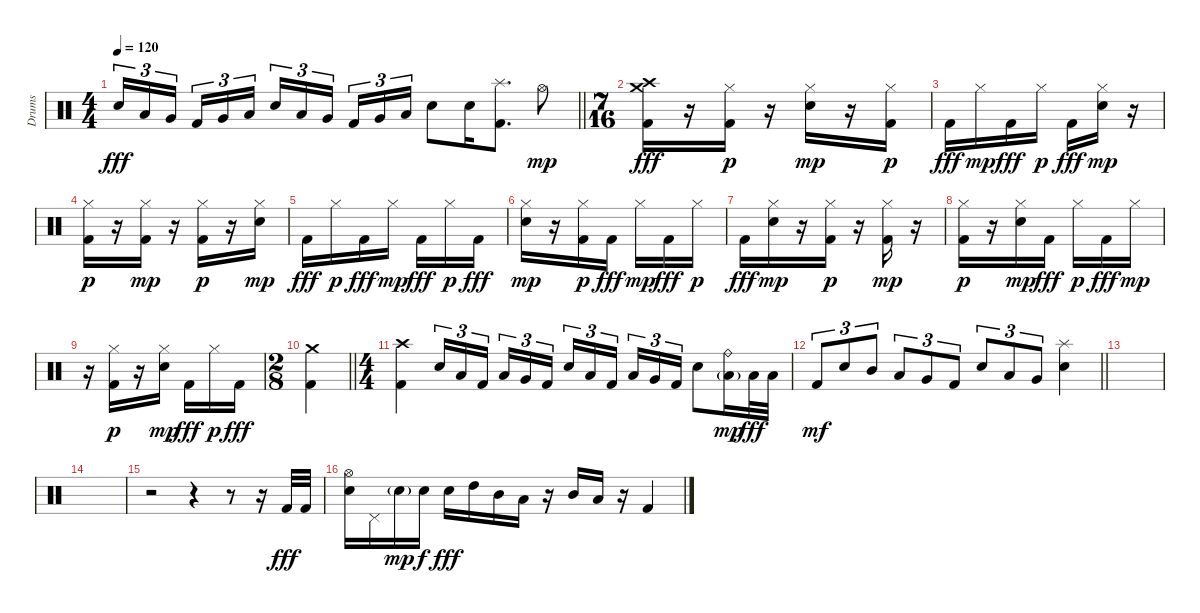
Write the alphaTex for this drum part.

\track ("Drums" "Drums") {instrument percussion}
\staff {score}
\articulation defaults
\ts (4 4)
\tempo 120
\clef neutral
\barLineRight lightlight
\ks c "Electric Snare (hit)".16{tu (3 2) dy fff} "Low Tom (hit)".16{tu (3 2)} "Very Low Tom (hit)".16{tu (3 2) beam splitsecondary} "Kick (hit) 2".16{tu (3 2)} "Very Low Tom (hit)".16{tu (3 2)} "Low Tom (hit)".16{tu (3 2)} "Electric Snare (hit)".16{tu (3 2)} "Low Tom (hit)".16{tu (3 2)} "Very Low Tom (hit)".16{tu (3 2) beam splitsecondary} "Kick (hit) 2".16{tu (3 2)} "Very Low Tom (hit)".16{tu (3 2)} "Low Tom (hit)".16{tu (3 2)} "Electric Snare (hit)".8 "Electric Snare (hit)".16
("Kick (hit) 2" "Splash (hit)").8{d} "Hi-Hat (open)".8{dy mp} |
\ts (7 16)
("Kick (hit) 2" "Crash high (hit)" "Crash medium (hit)").16{dy fff} r.16 ("Kick (hit) 2" "Hi-Hat (closed)").16{dy p} r.16 ("Electric Snare (hit)" "Hi-Hat (closed)").16{dy mp} r.16 ("Kick (hit) 2" "Hi-Hat (closed)").16{dy p} |
"Kick (hit) 2".16{dy fff} "Hi-Hat (closed)".16{dy mp} "Kick (hit) 2".16{dy fff} "Hi-Hat (closed)".16{dy p} "Kick (hit) 2".16{dy fff} ("Electric Snare (hit)" "Hi-Hat (closed)").16{dy mp} r.16 |
("Kick (hit) 2" "Hi-Hat (closed)").16{dy p} r.16 ("Kick (hit) 2" "Hi-Hat (closed)").16{dy mp} r.16 ("Kick (hit) 2" "Hi-Hat (closed)").16{dy p} r.16 ("Electric Snare (hit)" "Hi-Hat (closed)").16{dy mp} |
"Kick (hit) 2".16{dy fff} "Hi-Hat (closed)".16{dy p} "Kick (hit) 2".16{dy fff} "Hi-Hat (closed)".16{dy mp} "Kick (hit) 2".16{dy fff} "Hi-Hat (closed)".16{dy p} "Kick (hit) 2".16{dy fff} |
("Electric Snare (hit)" "Hi-Hat (closed)").16{dy mp} r.16 ("Kick (hit) 2" "Hi-Hat (closed)").16{dy p} "Kick (hit) 2".16{dy fff} "Hi-Hat (closed)".16{dy mp} "Kick (hit) 2".16{dy fff} "Hi-Hat (closed)".16{dy p} |
"Kick (hit) 2".16{dy fff} ("Electric Snare (hit)" "Hi-Hat (closed)").16{dy mp} r.16 ("Kick (hit) 2" "Hi-Hat (closed)").16{dy p} r.16 ("Kick (hit) 2" "Hi-Hat (closed)").16{dy mp} r.16 |
("Kick (hit) 2" "Hi-Hat (closed)").16{dy p} r.16 ("Electric Snare (hit)" "Hi-Hat (closed)").16{dy mp} "Kick (hit) 2".16{dy fff} "Hi-Hat (closed)".16{dy p} "Kick (hit) 2".16{dy fff} "Hi-Hat (closed)".16{dy mp} |
r.16 ("Kick (hit) 2" "Hi-Hat (closed)").16{dy p} r.16 ("Electric Snare (hit)" "Hi-Hat (closed)").16{dy mp} "Kick (hit) 2".16{dy fff} "Hi-Hat (closed)".16{dy p} "Kick (hit) 2".16{dy fff} |
\ts (2 8)
\barLineRight lightlight
("Kick (hit) 2" "Crash medium (hit)").4 |
\ts (4 4)
("Kick (hit) 2" "Crash high (hit)").4 "Electric Snare (hit)".16{tu (3 2)} "Low Tom (hit)".16{tu (3 2)} "Kick (hit) 2".16{tu (3 2) beam splitsecondary} "Low Floor Tom (hit)".16{tu (3 2)} "Very Low Tom (hit)".16{tu (3 2)} "Kick (hit) 2".16{tu (3 2)} "Electric Snare (hit)".16{tu (3 2)} "Low Tom (hit)".16{tu (3 2)} "Kick (hit) 2".16{tu (3 2) beam splitsecondary} "Low Floor Tom (hit)".16{tu (3 2)} "Very Low Tom (hit)".16{tu (3 2)} "Kick (hit) 2".16{tu (3 2)} "Electric Snare (hit)".8 ("Low Floor Tom (hit)"{g} "Ride (bell)").16{dy mp} "Low Floor Tom (hit)".32{dy fff} "Low Floor Tom (hit)".32 |
\barLineRight lightlight "Kick (hit) 2".8{tu (3 2) dy mf} "Electric Snare (hit)".8{tu (3 2)} "Mid Tom (hit)".8{tu (3 2)} "Low Tom (hit)".8{tu (3 2)} "Very Low Tom (hit)".8{tu (3 2)} "Kick (hit) 2".8{tu (3 2)} "Electric Snare (hit)".8{tu (3 2)} "Low Tom (hit)".8{tu (3 2)} "Very Low Tom (hit)".8{tu (3 2)}
("Electric Snare (hit)" "Splash (hit)").4 |
|
|
r.2 r.4 r.8 r.16 "Kick (hit) 2".32{dy fff} "Kick (hit) 2".32 |
("Electric Snare (hit)" "Hi-Hat (open)").16 "Pedal Hi-Hat (hit)".16 "Electric Snare (hit)"{g}.16{dy mp} "Electric Snare (hit)".16{dy f} "Electric Snare (hit)".16{dy fff} "High Tom (hit)".16 "Mid Tom (hit)".16 "Low Tom (hit)".16 r.16 "Mid Tom (hit)".16 "Low Tom (hit)".16 r.16 "Kick (hit) 2".4
